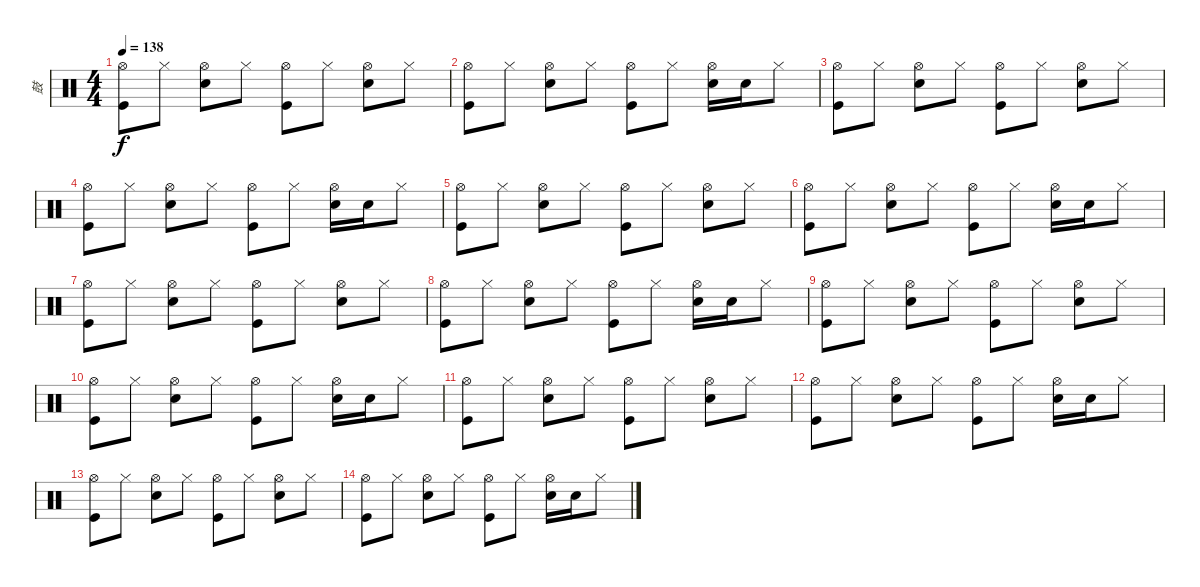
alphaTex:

\track ("鼓" "鼓") {instrument percussion}
\staff {score}
\articulation defaults
\ts (4 4)
\tempo 138
\clef neutral
\ks c
("Hi-Hat (open)" "Kick (hit)").8{dy f} "Hi-Hat (closed)".8 ("Hi-Hat (open)" "Snare (hit) 2").8 "Hi-Hat (closed)".8 ("Hi-Hat (open)" "Kick (hit)").8 "Hi-Hat (closed)".8 ("Hi-Hat (open)" "Snare (hit) 2").8 "Hi-Hat (closed)".8 |
("Hi-Hat (open)" "Kick (hit)").8 "Hi-Hat (closed)".8 ("Hi-Hat (open)" "Snare (hit) 2").8 "Hi-Hat (closed)".8 ("Hi-Hat (open)" "Kick (hit)").8 "Hi-Hat (closed)".8 ("Hi-Hat (open)" "Snare (hit) 2").16 "Snare (hit) 2".16 "Hi-Hat (closed)".8 |
("Hi-Hat (open)" "Kick (hit)").8 "Hi-Hat (closed)".8 ("Hi-Hat (open)" "Snare (hit) 2").8 "Hi-Hat (closed)".8 ("Hi-Hat (open)" "Kick (hit)").8 "Hi-Hat (closed)".8 ("Hi-Hat (open)" "Snare (hit) 2").8 "Hi-Hat (closed)".8 |
("Hi-Hat (open)" "Kick (hit)").8 "Hi-Hat (closed)".8 ("Hi-Hat (open)" "Snare (hit) 2").8 "Hi-Hat (closed)".8 ("Hi-Hat (open)" "Kick (hit)").8 "Hi-Hat (closed)".8 ("Hi-Hat (open)" "Snare (hit) 2").16 "Snare (hit) 2".16 "Hi-Hat (closed)".8 |
("Hi-Hat (open)" "Kick (hit)").8 "Hi-Hat (closed)".8 ("Hi-Hat (open)" "Snare (hit) 2").8 "Hi-Hat (closed)".8 ("Hi-Hat (open)" "Kick (hit)").8 "Hi-Hat (closed)".8 ("Hi-Hat (open)" "Snare (hit) 2").8 "Hi-Hat (closed)".8 |
("Hi-Hat (open)" "Kick (hit)").8 "Hi-Hat (closed)".8 ("Hi-Hat (open)" "Snare (hit) 2").8 "Hi-Hat (closed)".8 ("Hi-Hat (open)" "Kick (hit)").8 "Hi-Hat (closed)".8 ("Hi-Hat (open)" "Snare (hit) 2").16 "Snare (hit) 2".16 "Hi-Hat (closed)".8 |
("Hi-Hat (open)" "Kick (hit)").8 "Hi-Hat (closed)".8 ("Hi-Hat (open)" "Snare (hit) 2").8 "Hi-Hat (closed)".8 ("Hi-Hat (open)" "Kick (hit)").8 "Hi-Hat (closed)".8 ("Hi-Hat (open)" "Snare (hit) 2").8 "Hi-Hat (closed)".8 |
("Hi-Hat (open)" "Kick (hit)").8 "Hi-Hat (closed)".8 ("Hi-Hat (open)" "Snare (hit) 2").8 "Hi-Hat (closed)".8 ("Hi-Hat (open)" "Kick (hit)").8 "Hi-Hat (closed)".8 ("Hi-Hat (open)" "Snare (hit) 2").16 "Snare (hit) 2".16 "Hi-Hat (closed)".8 |
("Hi-Hat (open)" "Kick (hit)").8 "Hi-Hat (closed)".8 ("Hi-Hat (open)" "Snare (hit) 2").8 "Hi-Hat (closed)".8 ("Hi-Hat (open)" "Kick (hit)").8 "Hi-Hat (closed)".8 ("Hi-Hat (open)" "Snare (hit) 2").8 "Hi-Hat (closed)".8 |
("Hi-Hat (open)" "Kick (hit)").8 "Hi-Hat (closed)".8 ("Hi-Hat (open)" "Snare (hit) 2").8 "Hi-Hat (closed)".8 ("Hi-Hat (open)" "Kick (hit)").8 "Hi-Hat (closed)".8 ("Hi-Hat (open)" "Snare (hit) 2").16 "Snare (hit) 2".16 "Hi-Hat (closed)".8 |
("Hi-Hat (open)" "Kick (hit)").8 "Hi-Hat (closed)".8 ("Hi-Hat (open)" "Snare (hit) 2").8 "Hi-Hat (closed)".8 ("Hi-Hat (open)" "Kick (hit)").8 "Hi-Hat (closed)".8 ("Hi-Hat (open)" "Snare (hit) 2").8 "Hi-Hat (closed)".8 |
("Hi-Hat (open)" "Kick (hit)").8 "Hi-Hat (closed)".8 ("Hi-Hat (open)" "Snare (hit) 2").8 "Hi-Hat (closed)".8 ("Hi-Hat (open)" "Kick (hit)").8 "Hi-Hat (closed)".8 ("Hi-Hat (open)" "Snare (hit) 2").16 "Snare (hit) 2".16 "Hi-Hat (closed)".8 |
("Hi-Hat (open)" "Kick (hit)").8 "Hi-Hat (closed)".8 ("Hi-Hat (open)" "Snare (hit) 2").8 "Hi-Hat (closed)".8 ("Hi-Hat (open)" "Kick (hit)").8 "Hi-Hat (closed)".8 ("Hi-Hat (open)" "Snare (hit) 2").8 "Hi-Hat (closed)".8 |
("Hi-Hat (open)" "Kick (hit)").8 "Hi-Hat (closed)".8 ("Hi-Hat (open)" "Snare (hit) 2").8 "Hi-Hat (closed)".8 ("Hi-Hat (open)" "Kick (hit)").8 "Hi-Hat (closed)".8 ("Hi-Hat (open)" "Snare (hit) 2").16 "Snare (hit) 2".16 "Hi-Hat (closed)".8
